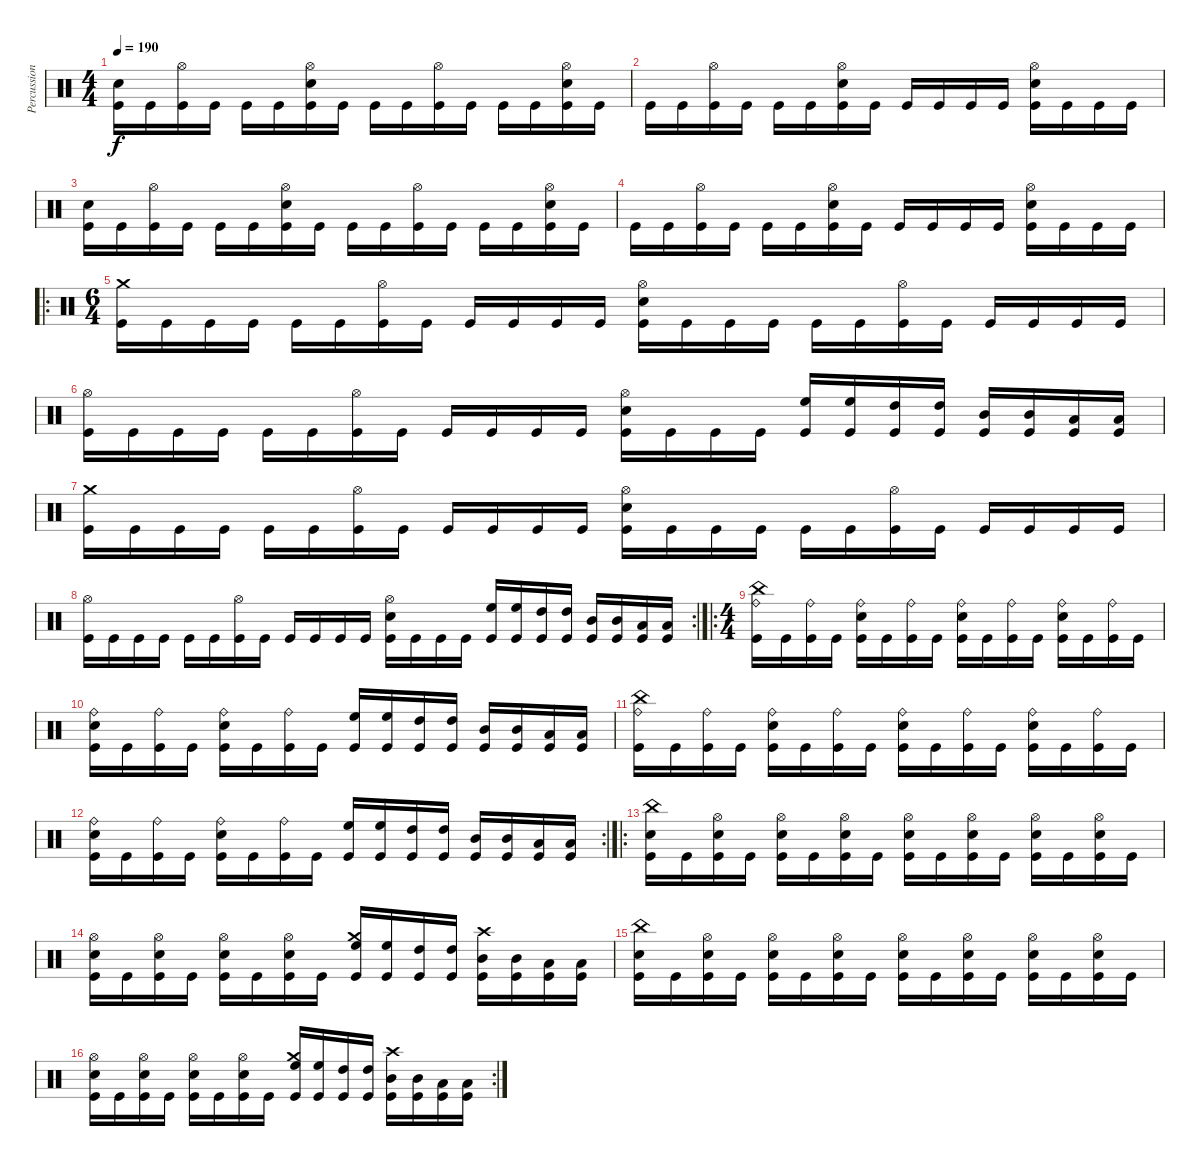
\track ("Percussion" "Percussion") {instrument percussion}
\staff {score}
\articulation defaults
\ts (4 4)
\tempo 190
\clef neutral
\ks c
("Electric Snare (hit)" "Kick (hit)").16{dy f} "Kick (hit)".16 ("Hi-Hat (open)" "Kick (hit)").16 "Kick (hit)".16 "Kick (hit)".16 "Kick (hit)".16 ("Hi-Hat (open)" "Electric Snare (hit)" "Kick (hit)").16 "Kick (hit)".16 "Kick (hit)".16 "Kick (hit)".16 ("Hi-Hat (open)" "Kick (hit)").16 "Kick (hit)".16 "Kick (hit)".16 "Kick (hit)".16 ("Hi-Hat (open)" "Electric Snare (hit)" "Kick (hit)").16 "Kick (hit)".16 |
"Kick (hit)".16 "Kick (hit)".16 ("Hi-Hat (open)" "Kick (hit)").16 "Kick (hit)".16 "Kick (hit)".16 "Kick (hit)".16 ("Hi-Hat (open)" "Electric Snare (hit)" "Kick (hit)").16 "Kick (hit)".16 "Kick (hit)".16 "Kick (hit)".16 "Kick (hit)".16 "Kick (hit)".16 ("Hi-Hat (open)" "Electric Snare (hit)" "Kick (hit)").16 "Kick (hit)".16 "Kick (hit)".16 "Kick (hit)".16 |
("Electric Snare (hit)" "Kick (hit)").16 "Kick (hit)".16 ("Hi-Hat (open)" "Kick (hit)").16 "Kick (hit)".16 "Kick (hit)".16 "Kick (hit)".16 ("Hi-Hat (open)" "Electric Snare (hit)" "Kick (hit)").16 "Kick (hit)".16 "Kick (hit)".16 "Kick (hit)".16 ("Hi-Hat (open)" "Kick (hit)").16 "Kick (hit)".16 "Kick (hit)".16 "Kick (hit)".16 ("Hi-Hat (open)" "Electric Snare (hit)" "Kick (hit)").16 "Kick (hit)".16 |
"Kick (hit)".16 "Kick (hit)".16 ("Hi-Hat (open)" "Kick (hit)").16 "Kick (hit)".16 "Kick (hit)".16 "Kick (hit)".16 ("Hi-Hat (open)" "Electric Snare (hit)" "Kick (hit)").16 "Kick (hit)".16 "Kick (hit)".16 "Kick (hit)".16 "Kick (hit)".16 "Kick (hit)".16 ("Hi-Hat (open)" "Electric Snare (hit)" "Kick (hit)").16 "Kick (hit)".16 "Kick (hit)".16 "Kick (hit)".16 |
\ro
\ts (6 4)
("Crash medium (hit)" "Kick (hit)").16 "Kick (hit)".16 "Kick (hit)".16 "Kick (hit)".16 "Kick (hit)".16 "Kick (hit)".16 ("Hi-Hat (open)" "Kick (hit)").16 "Kick (hit)".16 "Kick (hit)".16 "Kick (hit)".16 "Kick (hit)".16 "Kick (hit)".16 ("Electric Snare (hit)" "Hi-Hat (open)" "Kick (hit)").16 "Kick (hit)".16 "Kick (hit)".16 "Kick (hit)".16 "Kick (hit)".16 "Kick (hit)".16 ("Hi-Hat (open)" "Kick (hit)").16 "Kick (hit)".16 "Kick (hit)".16 "Kick (hit)".16 "Kick (hit)".16 "Kick (hit)".16 |
("Hi-Hat (open)" "Kick (hit)").16 "Kick (hit)".16 "Kick (hit)".16 "Kick (hit)".16 "Kick (hit)".16 "Kick (hit)".16 ("Hi-Hat (open)" "Kick (hit)").16 "Kick (hit)".16 "Kick (hit)".16 "Kick (hit)".16 "Kick (hit)".16 "Kick (hit)".16 ("Electric Snare (hit)" "Hi-Hat (open)" "Kick (hit)").16 "Kick (hit)".16 "Kick (hit)".16 "Kick (hit)".16 ("High Floor Tom (hit)" "Kick (hit)").16 ("High Floor Tom (hit)" "Kick (hit)").16 ("High Tom (hit)" "Kick (hit)").16 ("High Tom (hit)" "Kick (hit)").16 ("Mid Tom (hit)" "Kick (hit)").16 ("Mid Tom (hit)" "Kick (hit)").16 ("Low Tom (hit)" "Kick (hit)").16 ("Low Tom (hit)" "Kick (hit)").16 |
("Crash medium (hit)" "Kick (hit)").16 "Kick (hit)".16 "Kick (hit)".16 "Kick (hit)".16 "Kick (hit)".16 "Kick (hit)".16 ("Hi-Hat (open)" "Kick (hit)").16 "Kick (hit)".16 "Kick (hit)".16 "Kick (hit)".16 "Kick (hit)".16 "Kick (hit)".16 ("Electric Snare (hit)" "Hi-Hat (open)" "Kick (hit)").16 "Kick (hit)".16 "Kick (hit)".16 "Kick (hit)".16 "Kick (hit)".16 "Kick (hit)".16 ("Hi-Hat (open)" "Kick (hit)").16 "Kick (hit)".16 "Kick (hit)".16 "Kick (hit)".16 "Kick (hit)".16 "Kick (hit)".16 |
\rc 2
("Hi-Hat (open)" "Kick (hit)").16 "Kick (hit)".16 "Kick (hit)".16 "Kick (hit)".16 "Kick (hit)".16 "Kick (hit)".16 ("Hi-Hat (open)" "Kick (hit)").16 "Kick (hit)".16 "Kick (hit)".16 "Kick (hit)".16 "Kick (hit)".16 "Kick (hit)".16 ("Electric Snare (hit)" "Hi-Hat (open)" "Kick (hit)").16 "Kick (hit)".16 "Kick (hit)".16 "Kick (hit)".16 ("High Floor Tom (hit)" "Kick (hit)").16 ("High Floor Tom (hit)" "Kick (hit)").16 ("High Tom (hit)" "Kick (hit)").16 ("High Tom (hit)" "Kick (hit)").16 ("Mid Tom (hit)" "Kick (hit)").16 ("Mid Tom (hit)" "Kick (hit)").16 ("Low Tom (hit)" "Kick (hit)").16 ("Low Tom (hit)" "Kick (hit)").16 |
\ro
\ts (4 4)
("China (hit)" "Ride (bell)" "Kick (hit)").16 "Kick (hit)".16 ("Ride (bell)" "Kick (hit)").16 "Kick (hit)".16 ("Electric Snare (hit)" "Ride (bell)" "Kick (hit)").16 "Kick (hit)".16 ("Ride (bell)" "Kick (hit)").16 "Kick (hit)".16 ("Electric Snare (hit)" "Ride (bell)" "Kick (hit)").16 "Kick (hit)".16 ("Ride (bell)" "Kick (hit)").16 "Kick (hit)".16 ("Electric Snare (hit)" "Ride (bell)" "Kick (hit)").16 "Kick (hit)".16 ("Ride (bell)" "Kick (hit)").16 "Kick (hit)".16 |
("Electric Snare (hit)" "Ride (bell)" "Kick (hit)").16 "Kick (hit)".16 ("Ride (bell)" "Kick (hit)").16 "Kick (hit)".16 ("Electric Snare (hit)" "Ride (bell)" "Kick (hit)").16 "Kick (hit)".16 ("Ride (bell)" "Kick (hit)").16 "Kick (hit)".16 ("High Floor Tom (hit)" "Kick (hit)").16 ("High Floor Tom (hit)" "Kick (hit)").16 ("High Tom (hit)" "Kick (hit)").16 ("High Tom (hit)" "Kick (hit)").16 ("Mid Tom (hit)" "Kick (hit)").16 ("Mid Tom (hit)" "Kick (hit)").16 ("Low Tom (hit)" "Kick (hit)").16 ("Low Tom (hit)" "Kick (hit)").16 |
("China (hit)" "Ride (bell)" "Kick (hit)").16 "Kick (hit)".16 ("Ride (bell)" "Kick (hit)").16 "Kick (hit)".16 ("Electric Snare (hit)" "Ride (bell)" "Kick (hit)").16 "Kick (hit)".16 ("Ride (bell)" "Kick (hit)").16 "Kick (hit)".16 ("Electric Snare (hit)" "Ride (bell)" "Kick (hit)").16 "Kick (hit)".16 ("Ride (bell)" "Kick (hit)").16 "Kick (hit)".16 ("Electric Snare (hit)" "Ride (bell)" "Kick (hit)").16 "Kick (hit)".16 ("Ride (bell)" "Kick (hit)").16 "Kick (hit)".16 |
\rc 2
("Electric Snare (hit)" "Ride (bell)" "Kick (hit)").16 "Kick (hit)".16 ("Ride (bell)" "Kick (hit)").16 "Kick (hit)".16 ("Electric Snare (hit)" "Ride (bell)" "Kick (hit)").16 "Kick (hit)".16 ("Ride (bell)" "Kick (hit)").16 "Kick (hit)".16 ("High Floor Tom (hit)" "Kick (hit)").16 ("High Floor Tom (hit)" "Kick (hit)").16 ("High Tom (hit)" "Kick (hit)").16 ("High Tom (hit)" "Kick (hit)").16 ("Mid Tom (hit)" "Kick (hit)").16 ("Mid Tom (hit)" "Kick (hit)").16 ("Low Tom (hit)" "Kick (hit)").16 ("Low Tom (hit)" "Kick (hit)").16 |
\ro
("Electric Snare (hit)" "China (hit)" "Kick (hit)").16 "Kick (hit)".16 ("Electric Snare (hit)" "Hi-Hat (open)" "Kick (hit)").16 "Kick (hit)".16 ("Electric Snare (hit)" "Hi-Hat (open)" "Kick (hit)").16 "Kick (hit)".16 ("Electric Snare (hit)" "Hi-Hat (open)" "Kick (hit)").16 "Kick (hit)".16 ("Electric Snare (hit)" "Hi-Hat (open)" "Kick (hit)").16 "Kick (hit)".16 ("Electric Snare (hit)" "Hi-Hat (open)" "Kick (hit)").16 "Kick (hit)".16 ("Electric Snare (hit)" "Hi-Hat (open)" "Kick (hit)").16 "Kick (hit)".16 ("Electric Snare (hit)" "Hi-Hat (open)" "Kick (hit)").16 "Kick (hit)".16 |
("Electric Snare (hit)" "Hi-Hat (open)" "Kick (hit)").16 "Kick (hit)".16 ("Electric Snare (hit)" "Hi-Hat (open)" "Kick (hit)").16 "Kick (hit)".16 ("Electric Snare (hit)" "Hi-Hat (open)" "Kick (hit)").16 "Kick (hit)".16 ("Electric Snare (hit)" "Hi-Hat (open)" "Kick (hit)").16 "Kick (hit)".16 ("Crash medium (hit)" "High Floor Tom (hit)" "Kick (hit)").16 ("High Floor Tom (hit)" "Kick (hit)").16 ("High Tom (hit)" "Kick (hit)").16 ("High Tom (hit)" "Kick (hit)").16 ("Crash high (hit)" "Mid Tom (hit)" "Kick (hit)").16 ("Mid Tom (hit)" "Kick (hit)").16 ("Low Tom (hit)" "Kick (hit)").16 ("Low Tom (hit)" "Kick (hit)").16 |
("Electric Snare (hit)" "China (hit)" "Kick (hit)").16 "Kick (hit)".16 ("Electric Snare (hit)" "Hi-Hat (open)" "Kick (hit)").16 "Kick (hit)".16 ("Electric Snare (hit)" "Hi-Hat (open)" "Kick (hit)").16 "Kick (hit)".16 ("Electric Snare (hit)" "Hi-Hat (open)" "Kick (hit)").16 "Kick (hit)".16 ("Electric Snare (hit)" "Hi-Hat (open)" "Kick (hit)").16 "Kick (hit)".16 ("Electric Snare (hit)" "Hi-Hat (open)" "Kick (hit)").16 "Kick (hit)".16 ("Electric Snare (hit)" "Hi-Hat (open)" "Kick (hit)").16 "Kick (hit)".16 ("Electric Snare (hit)" "Hi-Hat (open)" "Kick (hit)").16 "Kick (hit)".16 |
\rc 2
("Electric Snare (hit)" "Hi-Hat (open)" "Kick (hit)").16 "Kick (hit)".16 ("Electric Snare (hit)" "Hi-Hat (open)" "Kick (hit)").16 "Kick (hit)".16 ("Electric Snare (hit)" "Hi-Hat (open)" "Kick (hit)").16 "Kick (hit)".16 ("Electric Snare (hit)" "Hi-Hat (open)" "Kick (hit)").16 "Kick (hit)".16 ("Crash medium (hit)" "High Floor Tom (hit)" "Kick (hit)").16 ("High Floor Tom (hit)" "Kick (hit)").16 ("High Tom (hit)" "Kick (hit)").16 ("High Tom (hit)" "Kick (hit)").16 ("Crash high (hit)" "Mid Tom (hit)" "Kick (hit)").16 ("Mid Tom (hit)" "Kick (hit)").16 ("Low Tom (hit)" "Kick (hit)").16 ("Low Tom (hit)" "Kick (hit)").16
